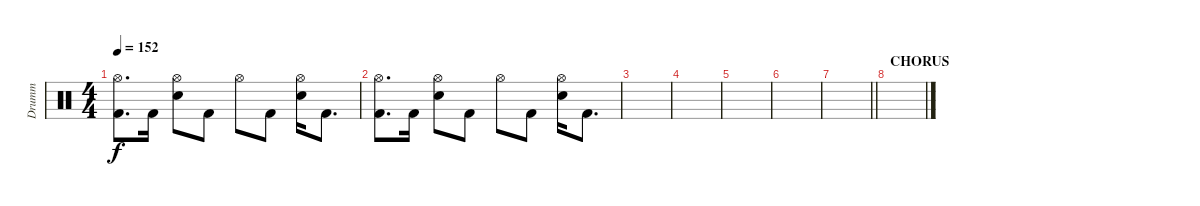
\track ("Drumm" "Drumm") {instrument percussion}
\staff {score}
\articulation defaults
\ts (4 4)
\tempo 152
\clef neutral
\ks c
("Hi-Hat (open)" "Kick (hit) 2").8{d dy f} "Kick (hit) 2".16 ("Hi-Hat (open)" "Snare (hit) 2").8 "Kick (hit) 2".8 "Hi-Hat (open)".8 "Kick (hit) 2".8 ("Hi-Hat (open)" "Snare (hit) 2").16 "Kick (hit) 2".8{d} |
("Hi-Hat (open)" "Kick (hit) 2").8{d} "Kick (hit) 2".16 ("Hi-Hat (open)" "Snare (hit) 2").8 "Kick (hit) 2".8 "Hi-Hat (open)".8 "Kick (hit) 2".8 ("Hi-Hat (open)" "Snare (hit) 2").16 "Kick (hit) 2".8{d} |
|
|
|
|
\barLineRight lightlight
|
\section ("" "CHORUS")
